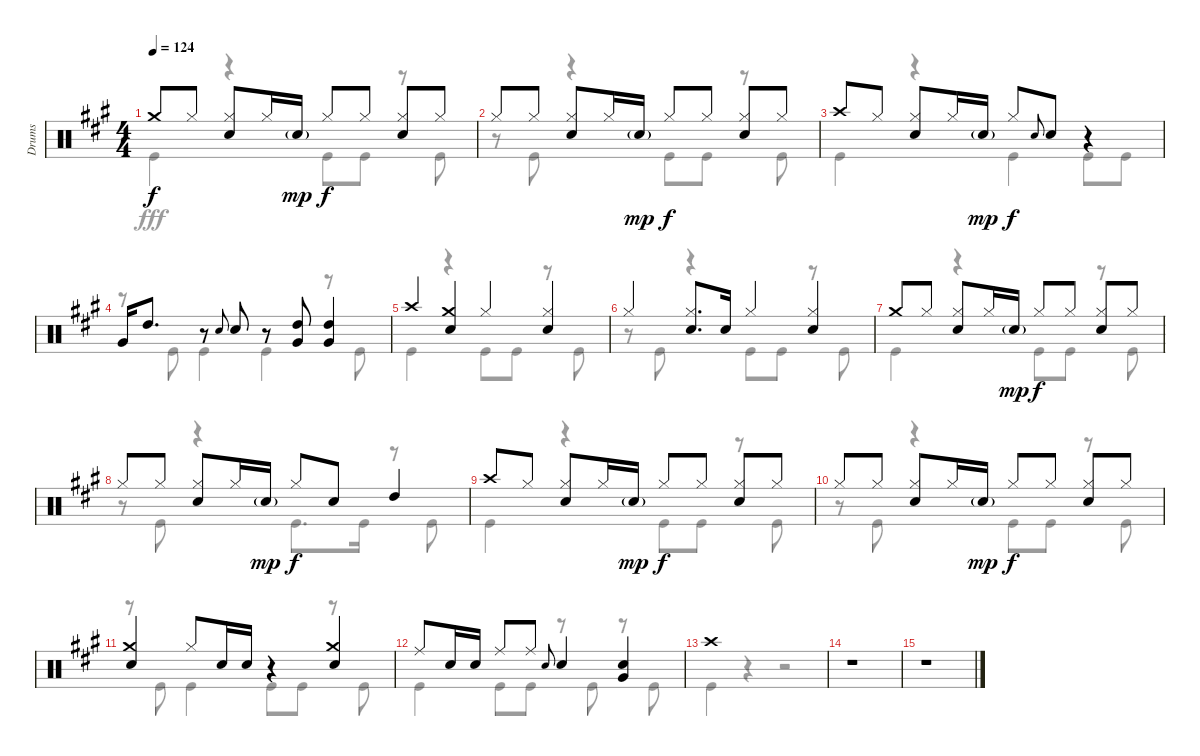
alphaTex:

\track ("Drums" "Drums") {instrument percussion}
\staff {score}
\articulation defaults
\voice
\ts (4 4)
\tempo 124
\clef neutral
\ks a "Crash medium (hit)".8{dy f} "Hi-Hat (closed)".8
("Hi-Hat (closed)" "Snare (hit) 2").8 "Hi-Hat (closed)".16 "Snare (hit) 2"{g}.16{dy mp} "Hi-Hat (closed)".8{dy f} "Hi-Hat (closed)".8 ("Hi-Hat (closed)" "Snare (hit) 2").8 "Hi-Hat (closed)".8 |
"Hi-Hat (closed)".8 "Hi-Hat (closed)".8 ("Hi-Hat (closed)" "Snare (hit) 2").8 "Hi-Hat (closed)".16 "Snare (hit) 2"{g}.16{dy mp} "Hi-Hat (closed)".8{dy f} "Hi-Hat (closed)".8 ("Hi-Hat (closed)" "Snare (hit) 2").8 "Hi-Hat (closed)".8 |
"Crash high (hit)".8 "Hi-Hat (closed)".8 ("Hi-Hat (closed)" "Snare (hit) 2").8 "Hi-Hat (closed)".16 "Snare (hit) 2"{g}.16{dy mp} "Hi-Hat (closed)".8{dy f} "Snare (hit) 2".8{gr onbeat} "Snare (hit) 2".8 r.4 |
"Very Low Tom (hit)".16 "High Tom (hit)".8{d} r.8 "Snare (hit) 2".8{gr onbeat} "Snare (hit) 2".8 r.8 ("High Tom (hit)" "Very Low Tom (hit)").8 ("High Tom (hit)" "Very Low Tom (hit)").4 |
"Crash high (hit)".4 ("Crash medium (hit)" "Snare (hit) 2").4 "Hi-Hat (closed)".4 ("Hi-Hat (closed)" "Snare (hit) 2").4 |
"Hi-Hat (closed)".4 ("Hi-Hat (closed)" "Snare (hit) 2").8{d} "Snare (hit) 2".16 "Hi-Hat (closed)".4 ("Hi-Hat (closed)" "Snare (hit) 2").4 |
"Crash medium (hit)".8 "Hi-Hat (closed)".8 ("Hi-Hat (closed)" "Snare (hit) 2").8 "Hi-Hat (closed)".16 "Snare (hit) 2"{g}.16{dy mp} "Hi-Hat (closed)".8{dy f} "Hi-Hat (closed)".8 ("Hi-Hat (closed)" "Snare (hit) 2").8 "Hi-Hat (closed)".8 |
"Hi-Hat (closed)".8 "Hi-Hat (closed)".8 ("Hi-Hat (closed)" "Snare (hit) 2").8 "Hi-Hat (closed)".16 "Snare (hit) 2"{g}.16{dy mp} "Hi-Hat (closed)".8{dy f} "Snare (hit) 2".8 "High Tom (hit)".4 |
"Crash high (hit)".8 "Hi-Hat (closed)".8 ("Hi-Hat (closed)" "Snare (hit) 2").8 "Hi-Hat (closed)".16 "Snare (hit) 2"{g}.16{dy mp} "Hi-Hat (closed)".8{dy f} "Hi-Hat (closed)".8 ("Hi-Hat (closed)" "Snare (hit) 2").8 "Hi-Hat (closed)".8 |
"Hi-Hat (closed)".8 "Hi-Hat (closed)".8 ("Hi-Hat (closed)" "Snare (hit) 2").8 "Hi-Hat (closed)".16 "Snare (hit) 2"{g}.16{dy mp} "Hi-Hat (closed)".8{dy f} "Hi-Hat (closed)".8 ("Hi-Hat (closed)" "Snare (hit) 2").8 "Hi-Hat (closed)".8 |
("Crash medium (hit)" "Snare (hit) 2").4 "Hi-Hat (closed)".8 "Snare (hit) 2".16 "Snare (hit) 2".16 r.4 ("Crash medium (hit)" "Snare (hit) 2").4 |
"Ride (middle)".8 "Snare (hit) 2".16 "Snare (hit) 2".16 "Ride (middle)".8 "Ride (middle)".8 "Snare (hit) 2".8{gr onbeat} "Snare (hit) 2".4 ("Snare (hit) 2" "Very Low Tom (hit)").4 |
"Crash high (hit)".1 |
r.1 |
r.1
\voice
\clef neutral
\ottava regular
\simile none
\ks a "Kick (hit)".4{dy fff}
r.4 "Kick (hit)".8 "Kick (hit)".8 r.8 "Kick (hit)".8 |
r.8 "Kick (hit)".8 r.4 "Kick (hit)".8 "Kick (hit)".8 r.8 "Kick (hit)".8 |
"Kick (hit)".4 r.4 "Kick (hit)".4 "Kick (hit)".8 "Kick (hit)".8 |
r.8 "Kick (hit)".8 "Kick (hit)".4 "Kick (hit)".4 r.8 "Kick (hit)".8 |
"Kick (hit)".4 r.4 "Kick (hit)".8 "Kick (hit)".8 r.8 "Kick (hit)".8 |
r.8 "Kick (hit)".8 r.4 "Kick (hit)".8 "Kick (hit)".8 r.8 "Kick (hit)".8 |
"Kick (hit)".4 r.4 "Kick (hit)".8 "Kick (hit)".8 r.8 "Kick (hit)".8 |
r.8 "Kick (hit)".8 r.4 "Kick (hit)".8{d} "Kick (hit)".16 r.8 "Kick (hit)".8 |
"Kick (hit)".4 r.4 "Kick (hit)".8 "Kick (hit)".8 r.8 "Kick (hit)".8 |
r.8 "Kick (hit)".8 r.4 "Kick (hit)".8 "Kick (hit)".8 r.8 "Kick (hit)".8 |
r.8 "Kick (hit)".8 "Kick (hit)".4 "Kick (hit)".8 "Kick (hit)".8 r.8 "Kick (hit)".8 |
"Kick (hit)".4 "Kick (hit)".8 "Kick (hit)".8 r.8 "Kick (hit)".8 r.8 "Kick (hit)".8 |
"Kick (hit)".4 r.4 r.2 |
r.1 |
r.1
